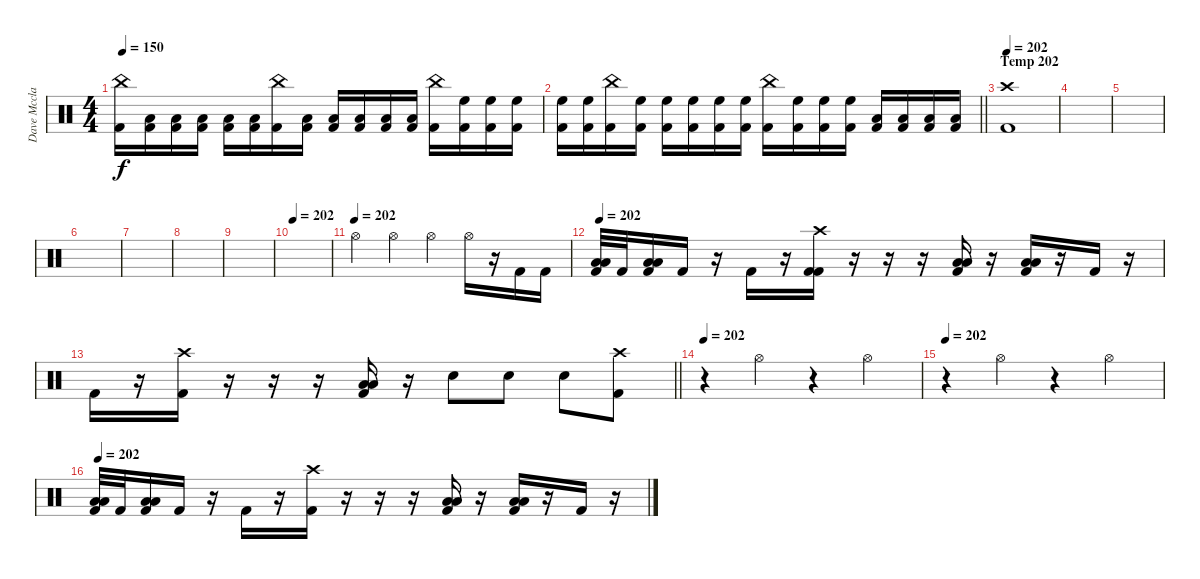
\track ("Dave Mcclain" "Dave Mccla") {instrument percussion}
\staff {score}
\articulation defaults
\ts (4 4)
\tempo 150
\clef neutral
\ks c
("China (hit)" "Kick (hit) 2").16{dy f} ("Low Floor Tom (hit)" "Kick (hit) 2").16 ("Low Floor Tom (hit)" "Kick (hit) 2").16 ("Low Floor Tom (hit)" "Kick (hit) 2").16 ("Low Floor Tom (hit)" "Kick (hit) 2").16 ("Low Floor Tom (hit)" "Kick (hit) 2").16 ("China (hit)" "Kick (hit) 2").16 ("Low Tom (hit)" "Kick (hit) 2").16 ("Low Tom (hit)" "Kick (hit) 2").16 ("Low Tom (hit)" "Kick (hit) 2").16 ("Low Tom (hit)" "Kick (hit) 2").16 ("Low Tom (hit)" "Kick (hit) 2").16 ("China (hit)" "Kick (hit) 2").16 ("High Floor Tom (hit)" "Kick (hit) 2").16 ("High Floor Tom (hit)" "Kick (hit) 2").16 ("High Floor Tom (hit)" "Kick (hit) 2").16 |
\barLineRight lightlight
("High Floor Tom (hit)" "Kick (hit) 2").16 ("High Floor Tom (hit)" "Kick (hit) 2").16 ("China (hit)" "Kick (hit) 2").16 ("High Floor Tom (hit)" "Kick (hit) 2").16 ("High Floor Tom (hit)" "Kick (hit) 2").16 ("High Floor Tom (hit)" "Kick (hit) 2").16 ("High Floor Tom (hit)" "Kick (hit) 2").16 ("High Floor Tom (hit)" "Kick (hit) 2").16 ("China (hit)" "Kick (hit) 2").16 ("High Floor Tom (hit)" "Kick (hit) 2").16 ("High Floor Tom (hit)" "Kick (hit) 2").16 ("High Floor Tom (hit)" "Kick (hit) 2").16 ("Low Tom (hit)" "Kick (hit) 2").16 ("Low Tom (hit)" "Kick (hit) 2").16 ("Low Floor Tom (hit)" "Kick (hit) 2").16 ("Low Floor Tom (hit)" "Kick (hit) 2").16 |
\section ("" "Temp 202")
\tempo 202
("Crash high (hit)" "Kick (hit) 2").1 |
|
|
|
|
|
|
\tempo 202
|
\tempo (202)
"Hi-Hat (open)".4 "Hi-Hat (open)".4 "Hi-Hat (open)".4 "Hi-Hat (open)".16 r.16 "Kick (hit) 2".16 "Kick (hit) 2".16 |
\tempo 202
("Low Tom (hit)" "Low Floor Tom (hit)" "Kick (hit) 2").32 "Kick (hit) 2".32 ("Low Tom (hit)" "Low Floor Tom (hit)" "Kick (hit) 2").16 "Kick (hit) 2".16 r.16 "Kick (hit) 2".16 r.16 ("Crash high (hit)" "Kick (hit) 2" "Kick (hit) 2").16 r.16 r.16 r.16 ("Low Tom (hit)" "Low Floor Tom (hit)" "Kick (hit) 2").16 r.16 ("Low Tom (hit)" "Low Floor Tom (hit)" "Kick (hit) 2").16 r.16 "Kick (hit) 2".16 r.16 |
\barLineRight lightlight "Kick (hit) 2".16
r.16 ("Crash high (hit)" "Kick (hit) 2").16 r.16 r.16 r.16 ("Low Tom (hit)" "Low Floor Tom (hit)" "Kick (hit) 2").16 r.16 "Electric Snare (hit)".8 "Electric Snare (hit)".8 "Electric Snare (hit)".8 ("Crash high (hit)" "Kick (hit) 2").8 |
\section ("" "")
\tempo 202
r.4 "Hi-Hat (open)".4 r.4 "Hi-Hat (open)".4 |
\tempo 202
r.4 "Hi-Hat (open)".4 r.4 "Hi-Hat (open)".4 |
\tempo 202
("Low Tom (hit)" "Low Floor Tom (hit)" "Kick (hit) 2").32 "Kick (hit) 2".32 ("Low Tom (hit)" "Low Floor Tom (hit)" "Kick (hit) 2").16 "Kick (hit) 2".16 r.16 "Kick (hit) 2".16 r.16 ("Crash high (hit)" "Kick (hit) 2").16 r.16 r.16 r.16 ("Low Tom (hit)" "Low Floor Tom (hit)" "Kick (hit) 2").16 r.16 ("Low Tom (hit)" "Low Floor Tom (hit)" "Kick (hit) 2").16 r.16 "Kick (hit) 2".16 r.16
